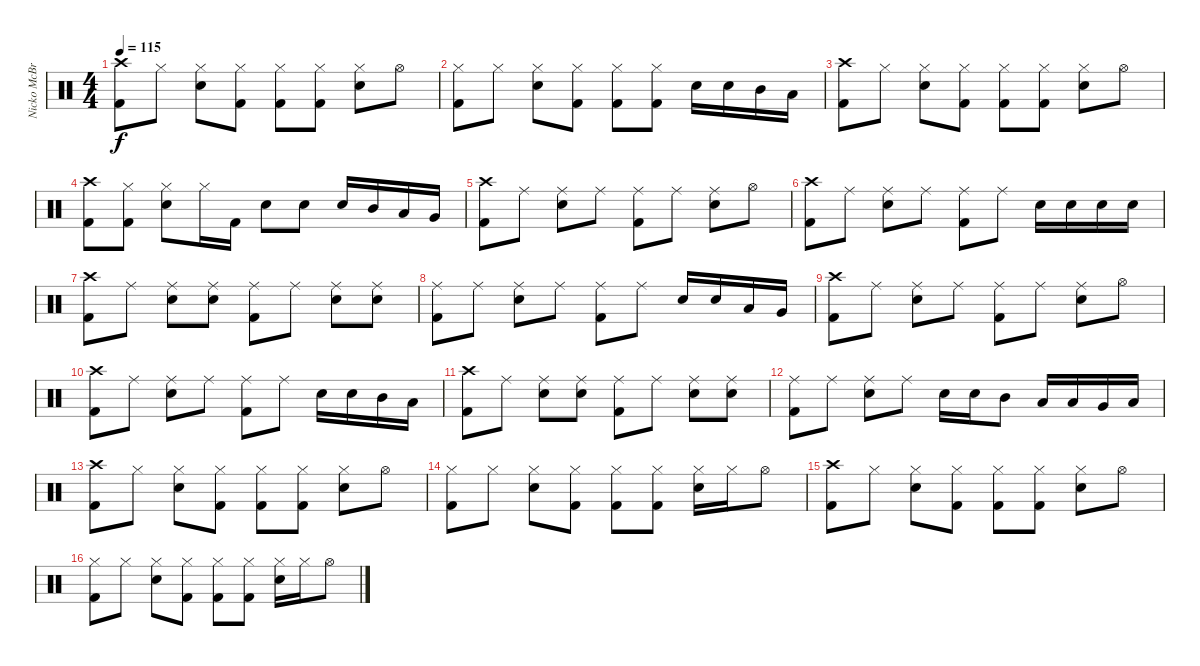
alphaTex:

\track ("Nicko McBrain" "Nicko McBr") {instrument percussion}
\staff {score}
\articulation defaults
\ts (4 4)
\tempo 115
\clef neutral
\ks c
("Crash high (hit)" "Kick (hit) 2").8{dy f} "Hi-Hat (closed)".8 ("Hi-Hat (closed)" "Electric Snare (hit)").8 ("Hi-Hat (closed)" "Kick (hit) 2").8 ("Hi-Hat (closed)" "Kick (hit) 2").8 ("Hi-Hat (closed)" "Kick (hit) 2").8 ("Hi-Hat (closed)" "Electric Snare (hit)").8 "Hi-Hat (open)".8 |
("Hi-Hat (closed)" "Kick (hit) 2").8 "Hi-Hat (closed)".8 ("Hi-Hat (closed)" "Electric Snare (hit)").8 ("Hi-Hat (closed)" "Kick (hit) 2").8 ("Hi-Hat (closed)" "Kick (hit) 2").8 ("Hi-Hat (closed)" "Kick (hit) 2").8 "Electric Snare (hit)".16 "Electric Snare (hit)".16 "Mid Tom (hit)".16 "Low Tom (hit)".16 |
("Crash high (hit)" "Kick (hit) 2").8 "Hi-Hat (closed)".8 ("Hi-Hat (closed)" "Electric Snare (hit)").8 ("Hi-Hat (closed)" "Kick (hit) 2").8 ("Hi-Hat (closed)" "Kick (hit) 2").8 ("Hi-Hat (closed)" "Kick (hit) 2").8 ("Hi-Hat (closed)" "Electric Snare (hit)").8 "Hi-Hat (open)".8 |
("Crash high (hit)" "Kick (hit) 2").8 ("Hi-Hat (closed)" "Kick (hit) 2").8 ("Hi-Hat (closed)" "Electric Snare (hit)").8 "Hi-Hat (closed)".16 "Kick (hit) 2".16 "Electric Snare (hit)".8 "Electric Snare (hit)".8 "Electric Snare (hit)".16 "Mid Tom (hit)".16 "Low Tom (hit)".16 "Very Low Tom (hit)".16 |
("Crash high (hit)" "Kick (hit) 2").8 "Ride (middle)".8 ("Ride (middle)" "Electric Snare (hit)").8 "Ride (middle)".8 ("Ride (middle)" "Kick (hit) 2").8 "Ride (middle)".8 ("Ride (middle)" "Electric Snare (hit)").8 "Hi-Hat (open)".8 |
("Crash high (hit)" "Kick (hit) 2").8 "Ride (middle)".8 ("Ride (middle)" "Electric Snare (hit)").8 "Ride (middle)".8 ("Ride (middle)" "Kick (hit) 2").8 "Ride (middle)".8 "Electric Snare (hit)".16 "Electric Snare (hit)".16 "Electric Snare (hit)".16 "Electric Snare (hit)".16 |
("Crash high (hit)" "Kick (hit) 2").8 "Ride (middle)".8 ("Ride (middle)" "Electric Snare (hit)").8 ("Ride (middle)" "Electric Snare (hit)").8 ("Ride (middle)" "Kick (hit) 2").8 "Ride (middle)".8 ("Ride (middle)" "Electric Snare (hit)").8 ("Ride (middle)" "Electric Snare (hit)").8 |
("Ride (middle)" "Kick (hit) 2").8 "Ride (middle)".8 ("Ride (middle)" "Electric Snare (hit)").8 "Ride (middle)".8 ("Ride (middle)" "Kick (hit) 2").8 "Ride (middle)".8 "Electric Snare (hit)".16 "Electric Snare (hit)".16 "Low Tom (hit)".16 "Very Low Tom (hit)".16 |
("Crash high (hit)" "Kick (hit) 2").8 "Ride (middle)".8 ("Ride (middle)" "Electric Snare (hit)").8 "Ride (middle)".8 ("Ride (middle)" "Kick (hit) 2").8 "Ride (middle)".8 ("Ride (middle)" "Electric Snare (hit)").8 "Hi-Hat (open)".8 |
("Crash high (hit)" "Kick (hit) 2").8 "Ride (middle)".8 ("Ride (middle)" "Electric Snare (hit)").8 "Ride (middle)".8 ("Ride (middle)" "Kick (hit) 2").8 "Ride (middle)".8 "Electric Snare (hit)".16 "Electric Snare (hit)".16 "Mid Tom (hit)".16 "Low Tom (hit)".16 |
("Crash high (hit)" "Kick (hit) 2").8 "Ride (middle)".8 ("Ride (middle)" "Electric Snare (hit)").8 ("Ride (middle)" "Electric Snare (hit)").8 ("Ride (middle)" "Kick (hit) 2").8 "Ride (middle)".8 ("Ride (middle)" "Electric Snare (hit)").8 ("Ride (middle)" "Electric Snare (hit)").8 |
("Ride (middle)" "Kick (hit) 2").8 "Ride (middle)".8 ("Ride (middle)" "Electric Snare (hit)").8 "Ride (middle)".8 "Electric Snare (hit)".16 "Electric Snare (hit)".16 "Mid Tom (hit)".8 "Low Tom (hit)".16 "Low Tom (hit)".16 "Very Low Tom (hit)".16 "Low Floor Tom (hit)".16 |
("Crash high (hit)" "Kick (hit) 2").8 "Hi-Hat (closed)".8 ("Hi-Hat (closed)" "Electric Snare (hit)").8 ("Hi-Hat (closed)" "Kick (hit) 2").8 ("Hi-Hat (closed)" "Kick (hit) 2").8 ("Hi-Hat (closed)" "Kick (hit) 2").8 ("Hi-Hat (closed)" "Electric Snare (hit)").8 "Hi-Hat (open)".8 |
("Hi-Hat (closed)" "Kick (hit) 2").8 "Hi-Hat (closed)".8 ("Hi-Hat (closed)" "Electric Snare (hit)").8 ("Hi-Hat (closed)" "Kick (hit) 2").8 ("Hi-Hat (closed)" "Kick (hit) 2").8 ("Hi-Hat (closed)" "Kick (hit) 2").8 ("Hi-Hat (closed)" "Electric Snare (hit)").16 "Hi-Hat (closed)".16 "Hi-Hat (open)".8 |
("Crash high (hit)" "Kick (hit) 2").8 "Hi-Hat (closed)".8 ("Hi-Hat (closed)" "Electric Snare (hit)").8 ("Hi-Hat (closed)" "Kick (hit) 2").8 ("Hi-Hat (closed)" "Kick (hit) 2").8 ("Hi-Hat (closed)" "Kick (hit) 2").8 ("Hi-Hat (closed)" "Electric Snare (hit)").8 "Hi-Hat (open)".8 |
("Hi-Hat (closed)" "Kick (hit) 2").8 "Hi-Hat (closed)".8 ("Hi-Hat (closed)" "Electric Snare (hit)").8 ("Hi-Hat (closed)" "Kick (hit) 2").8 ("Hi-Hat (closed)" "Kick (hit) 2").8 ("Hi-Hat (closed)" "Kick (hit) 2").8 ("Hi-Hat (closed)" "Electric Snare (hit)").16 "Hi-Hat (closed)".16 "Hi-Hat (open)".8
